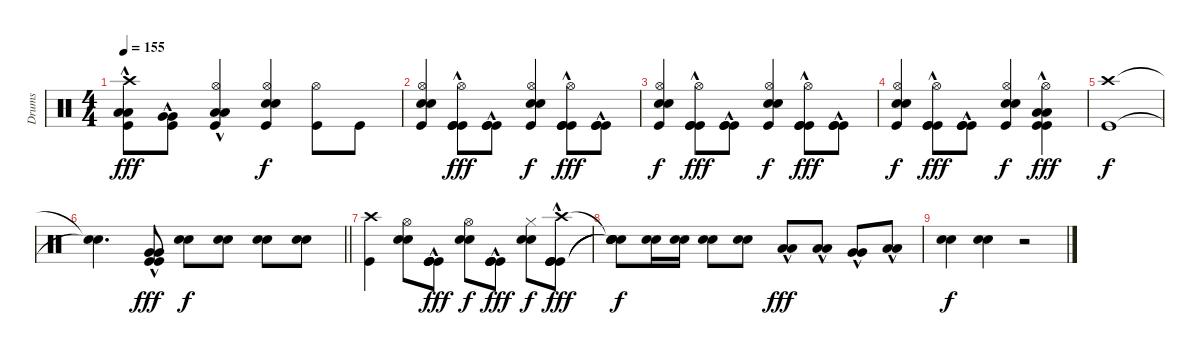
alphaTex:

\track ("Drums" "Drums") {instrument percussion}
\staff {score}
\articulation defaults
\ts (4 4)
\tempo 155
\clef neutral
\ks c
("Crash high (hit)" "Low Tom (hit)"{hac} "Low Tom (hit)"{hac} "Kick (hit)").8{dy fff} ("Very Low Tom (hit)"{hac} "Very Low Tom (hit)"{hac} "Kick (hit)").8 ("Hi-Hat (open)" "Low Floor Tom (hit)"{hac} "Low Floor Tom (hit)"{hac} "Kick (hit)").4 ("Hi-Hat (open)" "Snare (hit) 2" "Electric Snare (hit)" "Kick (hit)").4{dy f} ("Hi-Hat (open)" "Kick (hit)").8 "Kick (hit)".8 |
("Hi-Hat (open)" "Snare (hit) 2" "Electric Snare (hit)" "Kick (hit)").4 ("Hi-Hat (open)" "Kick (hit)"{hac} "Kick (hit)"{hac} "Kick (hit)"{hac}).8{dy fff} ("Kick (hit)"{hac} "Kick (hit)"{hac} "Kick (hit)"{hac}).8 ("Hi-Hat (open)" "Snare (hit) 2" "Electric Snare (hit)" "Kick (hit)").4{dy f} ("Hi-Hat (open)" "Kick (hit)"{hac} "Kick (hit)"{hac} "Kick (hit)"{hac}).8{dy fff} ("Kick (hit)"{hac} "Kick (hit)"{hac} "Kick (hit)"{hac}).8 |
("Hi-Hat (open)" "Snare (hit) 2" "Electric Snare (hit)" "Kick (hit)").4{dy f} ("Hi-Hat (open)" "Kick (hit)"{hac} "Kick (hit)"{hac} "Kick (hit)"{hac}).8{dy fff} ("Kick (hit)"{hac} "Kick (hit)"{hac} "Kick (hit)"{hac}).8 ("Hi-Hat (open)" "Snare (hit) 2" "Electric Snare (hit)" "Kick (hit)").4{dy f} ("Hi-Hat (open)" "Kick (hit)"{hac} "Kick (hit)"{hac} "Kick (hit)"{hac}).8{dy fff} ("Kick (hit)"{hac} "Kick (hit)"{hac} "Kick (hit)"{hac}).8 |
("Hi-Hat (open)" "Snare (hit) 2" "Electric Snare (hit)" "Kick (hit)").4{dy f} ("Hi-Hat (open)" "Kick (hit)"{hac} "Kick (hit)"{hac} "Kick (hit)"{hac}).8{dy fff} ("Kick (hit)"{hac} "Kick (hit)"{hac} "Kick (hit)"{hac}).8 ("Hi-Hat (open)" "Snare (hit) 2" "Electric Snare (hit)" "Kick (hit)").4{dy f} ("Hi-Hat (open)" "Low Tom (hit)"{hac} "Low Tom (hit)"{hac} "Kick (hit)"{hac} "Kick (hit)"{hac}).4{bu 120 dy fff} |
("Crash high (hit)" "Kick (hit)").1{dy f} |
\barLineRight lightlight
("Snare (hit)"{t} "Snare (hit)"{t}).4{d} ("Very Low Tom (hit)"{hac} "Very Low Tom (hit)"{hac} "Kick (hit)"{hac} "Kick (hit)"{hac}).8{dy fff} ("Snare (hit) 2" "Electric Snare (hit)").8{dy f} ("Snare (hit) 2" "Electric Snare (hit)").8 ("Snare (hit) 2" "Electric Snare (hit)").8 ("Snare (hit) 2" "Electric Snare (hit)").8 |
("Crash high (hit)" "Kick (hit)").4 ("Hi-Hat (open)" "Snare (hit) 2" "Electric Snare (hit)").8 ("Kick (hit)"{hac} "Kick (hit)"{hac} "Kick (hit)"{hac} "Kick (hit)"{hac}).8{dy fff} ("Hi-Hat (open)" "Snare (hit) 2" "Electric Snare (hit)").8{dy f} ("Kick (hit)"{hac} "Kick (hit)"{hac} "Kick (hit)"{hac} "Kick (hit)"{hac}).8{dy fff} ("Hi-Hat (closed)" "Snare (hit) 2" "Electric Snare (hit)").8{dy f} ("Crash high (hit)" "Kick (hit)"{hac} "Kick (hit)"{hac} "Kick (hit)"{hac} "Kick (hit)"{hac}).8{dy fff} |
("Snare (hit)"{t} "Snare (hit)"{t} "Snare (hit)"{t} "Snare (hit)"{t} "Snare (hit)"{t}).8{dy f} ("Snare (hit) 2" "Electric Snare (hit)").16 ("Snare (hit) 2" "Electric Snare (hit)").16 ("Snare (hit) 2" "Electric Snare (hit)").8 ("Snare (hit) 2" "Electric Snare (hit)").8 ("Low Tom (hit)"{hac} "Low Tom (hit)"{hac}).8{dy fff} ("Low Tom (hit)"{hac} "Low Tom (hit)"{hac}).8 ("Very Low Tom (hit)"{hac} "Very Low Tom (hit)"{hac}).8 ("Low Floor Tom (hit)"{hac} "Low Floor Tom (hit)"{hac}).8 |
("Snare (hit) 2" "Electric Snare (hit)").4{dy f} ("Snare (hit) 2" "Electric Snare (hit)").4 r.2
